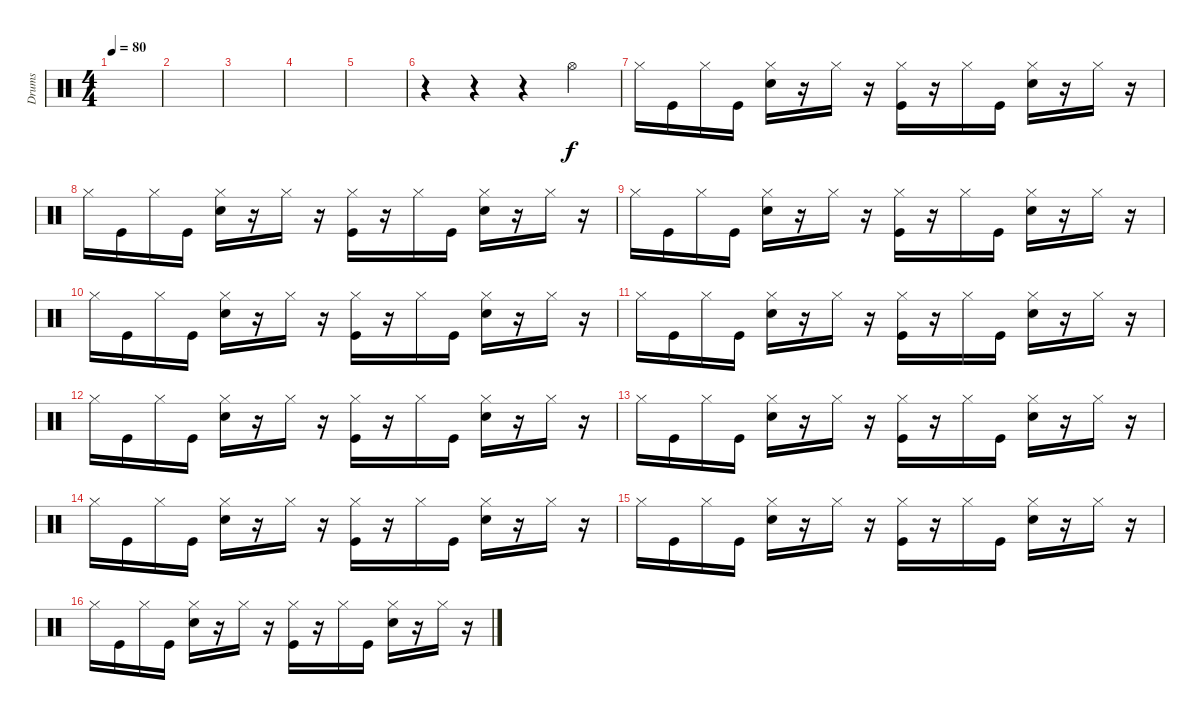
\track ("Drums" "Drums") {instrument percussion}
\staff {score}
\articulation defaults
\ts (4 4)
\tempo 80
\clef neutral
\ks c
|
|
|
|
|
r.4 r.4 r.4 "Hi-Hat (open)".4 |
"Hi-Hat (closed)".16{dy f} "Kick (hit)".16 "Hi-Hat (closed)".16 "Kick (hit)".16 ("Hi-Hat (closed)" "Electric Snare (hit)").16 r.16 "Hi-Hat (closed)".16 r.16 ("Hi-Hat (closed)" "Kick (hit)").16 r.16 "Hi-Hat (closed)".16 "Kick (hit)".16 ("Hi-Hat (closed)" "Electric Snare (hit)").16 r.16 "Hi-Hat (closed)".16 r.16 |
"Hi-Hat (closed)".16 "Kick (hit)".16 "Hi-Hat (closed)".16 "Kick (hit)".16 ("Hi-Hat (closed)" "Electric Snare (hit)").16 r.16 "Hi-Hat (closed)".16 r.16 ("Hi-Hat (closed)" "Kick (hit)").16 r.16 "Hi-Hat (closed)".16 "Kick (hit)".16 ("Hi-Hat (closed)" "Electric Snare (hit)").16 r.16 "Hi-Hat (closed)".16 r.16 |
"Hi-Hat (closed)".16 "Kick (hit)".16 "Hi-Hat (closed)".16 "Kick (hit)".16 ("Hi-Hat (closed)" "Electric Snare (hit)").16 r.16 "Hi-Hat (closed)".16 r.16 ("Hi-Hat (closed)" "Kick (hit)").16 r.16 "Hi-Hat (closed)".16 "Kick (hit)".16 ("Hi-Hat (closed)" "Electric Snare (hit)").16 r.16 "Hi-Hat (closed)".16 r.16 |
"Hi-Hat (closed)".16 "Kick (hit)".16 "Hi-Hat (closed)".16 "Kick (hit)".16 ("Hi-Hat (closed)" "Electric Snare (hit)").16 r.16 "Hi-Hat (closed)".16 r.16 ("Hi-Hat (closed)" "Kick (hit)").16 r.16 "Hi-Hat (closed)".16 "Kick (hit)".16 ("Hi-Hat (closed)" "Electric Snare (hit)").16 r.16 "Hi-Hat (closed)".16 r.16 |
"Hi-Hat (closed)".16 "Kick (hit)".16 "Hi-Hat (closed)".16 "Kick (hit)".16 ("Hi-Hat (closed)" "Electric Snare (hit)").16 r.16 "Hi-Hat (closed)".16 r.16 ("Hi-Hat (closed)" "Kick (hit)").16 r.16 "Hi-Hat (closed)".16 "Kick (hit)".16 ("Hi-Hat (closed)" "Electric Snare (hit)").16 r.16 "Hi-Hat (closed)".16 r.16 |
"Hi-Hat (closed)".16 "Kick (hit)".16 "Hi-Hat (closed)".16 "Kick (hit)".16 ("Hi-Hat (closed)" "Electric Snare (hit)").16 r.16 "Hi-Hat (closed)".16 r.16 ("Hi-Hat (closed)" "Kick (hit)").16 r.16 "Hi-Hat (closed)".16 "Kick (hit)".16 ("Hi-Hat (closed)" "Electric Snare (hit)").16 r.16 "Hi-Hat (closed)".16 r.16 |
"Hi-Hat (closed)".16 "Kick (hit)".16 "Hi-Hat (closed)".16 "Kick (hit)".16 ("Hi-Hat (closed)" "Electric Snare (hit)").16 r.16 "Hi-Hat (closed)".16 r.16 ("Hi-Hat (closed)" "Kick (hit)").16 r.16 "Hi-Hat (closed)".16 "Kick (hit)".16 ("Hi-Hat (closed)" "Electric Snare (hit)").16 r.16 "Hi-Hat (closed)".16 r.16 |
"Hi-Hat (closed)".16 "Kick (hit)".16 "Hi-Hat (closed)".16 "Kick (hit)".16 ("Hi-Hat (closed)" "Electric Snare (hit)").16 r.16 "Hi-Hat (closed)".16 r.16 ("Hi-Hat (closed)" "Kick (hit)").16 r.16 "Hi-Hat (closed)".16 "Kick (hit)".16 ("Hi-Hat (closed)" "Electric Snare (hit)").16 r.16 "Hi-Hat (closed)".16 r.16 |
"Hi-Hat (closed)".16 "Kick (hit)".16 "Hi-Hat (closed)".16 "Kick (hit)".16 ("Hi-Hat (closed)" "Electric Snare (hit)").16 r.16 "Hi-Hat (closed)".16 r.16 ("Hi-Hat (closed)" "Kick (hit)").16 r.16 "Hi-Hat (closed)".16 "Kick (hit)".16 ("Hi-Hat (closed)" "Electric Snare (hit)").16 r.16 "Hi-Hat (closed)".16 r.16 |
"Hi-Hat (closed)".16 "Kick (hit)".16 "Hi-Hat (closed)".16 "Kick (hit)".16 ("Hi-Hat (closed)" "Electric Snare (hit)").16 r.16 "Hi-Hat (closed)".16 r.16 ("Hi-Hat (closed)" "Kick (hit)").16 r.16 "Hi-Hat (closed)".16 "Kick (hit)".16 ("Hi-Hat (closed)" "Electric Snare (hit)").16 r.16 "Hi-Hat (closed)".16 r.16
